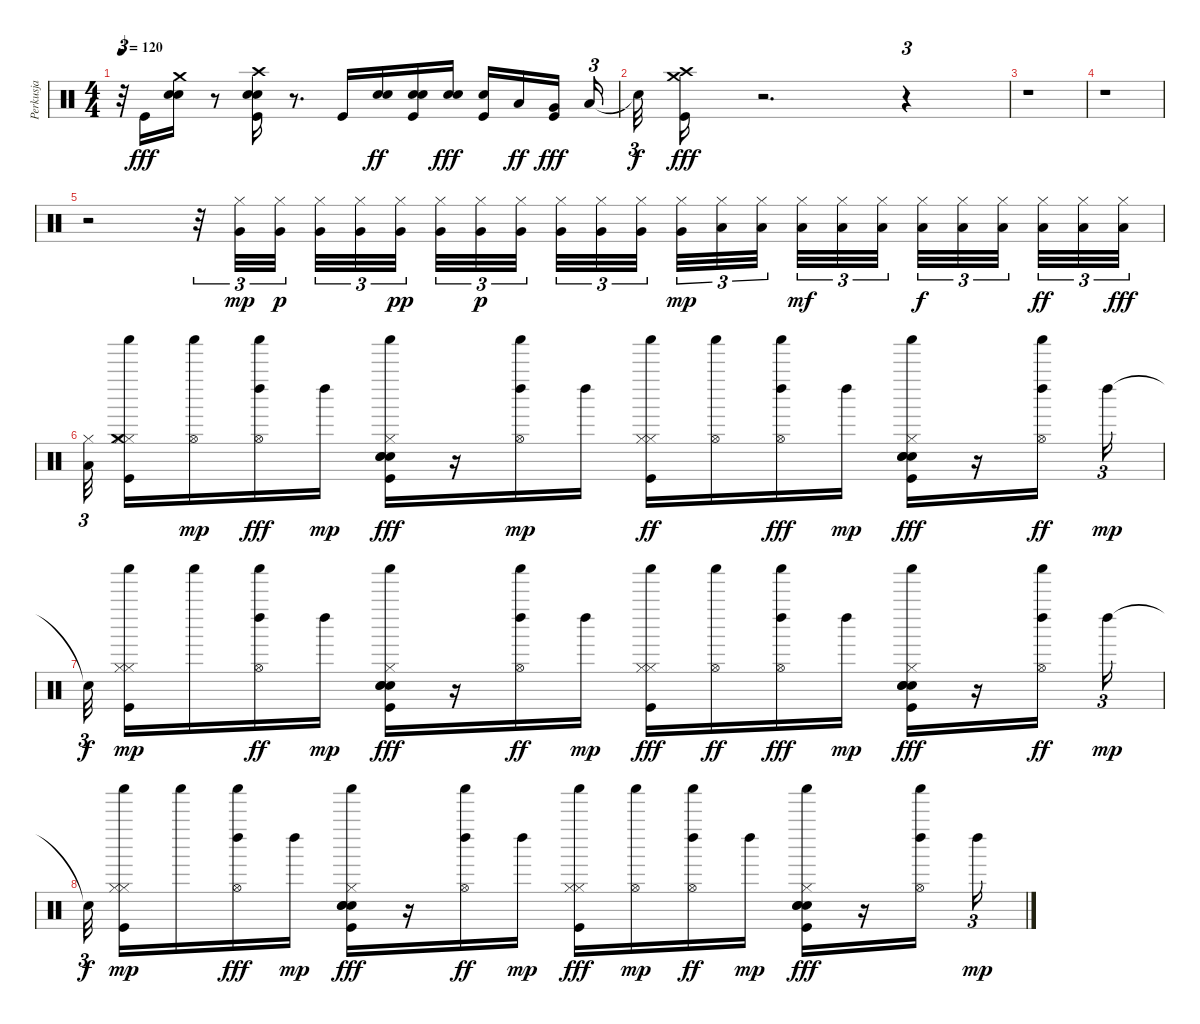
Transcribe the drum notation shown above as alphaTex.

\track ("Perkusja" "Perkusja") {instrument percussion}
\staff {score}
\articulation defaults
\ts (4 4)
\tempo 120
\clef neutral
\ks c
r.32{tu (3 2) dy ff} "Kick (hit)".16{dy fff} ("Snare (hit) 2" "Electric Snare (hit)" "Crash medium (hit)").16 r.8 ("Crash high (hit)" "Snare (hit) 2" "Electric Snare (hit)" "Kick (hit)").16 r.8{d} "Kick (hit)".16 ("Snare (hit) 2" "Electric Snare (hit)").16{dy ff} ("Snare (hit) 2" "Electric Snare (hit)" "Kick (hit)").16 ("Snare (hit) 2" "Electric Snare (hit)").16{dy fff} ("Electric Snare (hit)" "Kick (hit)").16 "Low Tom (hit)".16{dy ff} ("Very Low Tom (hit)" "Kick (hit)").16{dy fff} "Low Floor Tom (hit)".16{tu (3 2)} |
"Snare (hit)"{t}.32{tu (3 2) dy f} ("Kick (hit)" "Crash high (hit)" "Crash medium (hit)").16{dy fff} r.2{d} r.4{tu (3 2)} |
r.1 |
r.1 |
r.2 r.32{tu (3 2)} ("Hi-Hat (closed)" "Very Low Tom (hit)").32{tu (3 2) dy mp} ("Hi-Hat (closed)" "Very Low Tom (hit)").32{tu (3 2) dy p} ("Hi-Hat (closed)" "Very Low Tom (hit)").32{tu (3 2)} ("Hi-Hat (closed)" "Very Low Tom (hit)").32{tu (3 2)} ("Hi-Hat (closed)" "Very Low Tom (hit)").32{tu (3 2) dy pp} ("Hi-Hat (closed)" "Very Low Tom (hit)").32{tu (3 2)} ("Hi-Hat (closed)" "Very Low Tom (hit)").32{tu (3 2) dy p} ("Hi-Hat (closed)" "Very Low Tom (hit)").32{tu (3 2)} ("Hi-Hat (closed)" "Very Low Tom (hit)").32{tu (3 2)} ("Hi-Hat (closed)" "Very Low Tom (hit)").32{tu (3 2)} ("Hi-Hat (closed)" "Very Low Tom (hit)").32{tu (3 2)} ("Hi-Hat (closed)" "Very Low Tom (hit)").32{tu (3 2) dy mp} ("Hi-Hat (closed)" "Low Floor Tom (hit)").32{tu (3 2)} ("Hi-Hat (closed)" "Low Floor Tom (hit)").32{tu (3 2)} ("Hi-Hat (closed)" "Low Floor Tom (hit)").32{tu (3 2) dy mf} ("Hi-Hat (closed)" "Low Floor Tom (hit)").32{tu (3 2)} ("Hi-Hat (closed)" "Low Floor Tom (hit)").32{tu (3 2)} ("Hi-Hat (closed)" "Low Floor Tom (hit)").32{tu (3 2) dy f} ("Hi-Hat (closed)" "Low Floor Tom (hit)").32{tu (3 2)} ("Hi-Hat (closed)" "Low Floor Tom (hit)").32{tu (3 2)} ("Hi-Hat (closed)" "Low Floor Tom (hit)").32{tu (3 2) dy ff} ("Hi-Hat (closed)" "Low Floor Tom (hit)").32{tu (3 2)} ("Hi-Hat (closed)" "Low Floor Tom (hit)").32{tu (3 2) dy fff} |
("Hi-Hat (closed)" "Low Floor Tom (hit)").32{tu (3 2)} ("Hi-Hat (closed)" "Kick (hit)" "Hi-Hat (closed)" "Shaker (hit)" "Crash medium (hit)").16 ("Hi-Hat (open)" "Shaker (hit)").16{dy mp} ("Hi-Hat (open)" "Left Maraca (hit)" "Shaker (hit)").16{dy fff} "Left Maraca (hit)".16{dy mp} ("Kick (hit)" "Snare (hit) 2" "Electric Snare (hit)" "Hi-Hat (closed)" "Shaker (hit)" "Hand Clap (hit)").16{dy fff} r.16 ("Hi-Hat (open)" "Left Maraca (hit)" "Shaker (hit)").16{dy mp} "Left Maraca (hit)".16 ("Hi-Hat (closed)" "Kick (hit)" "Shaker (hit)" "Hi-Hat (closed)").16{dy ff} ("Shaker (hit)" "Hi-Hat (open)").16 ("Hi-Hat (open)" "Left Maraca (hit)" "Shaker (hit)").16{dy fff} "Left Maraca (hit)".16{dy mp} ("Kick (hit)" "Snare (hit) 2" "Hand Clap (hit)" "Electric Snare (hit)" "Hi-Hat (closed)" "Shaker (hit)").16{dy fff} r.16 ("Hi-Hat (open)" "Left Maraca (hit)" "Shaker (hit)").16{dy ff} "Left Maraca (hit)".16{tu (3 2) dy mp} |
"Snare (hit)"{t}.32{tu (3 2) dy f} ("Hi-Hat (closed)" "Kick (hit)" "Hi-Hat (closed)" "Shaker (hit)").16{dy mp} "Shaker (hit)".16 ("Hi-Hat (open)" "Left Maraca (hit)" "Shaker (hit)").16{dy ff} "Left Maraca (hit)".16{dy mp} ("Kick (hit)" "Snare (hit) 2" "Electric Snare (hit)" "Hi-Hat (closed)" "Shaker (hit)" "Hand Clap (hit)").16{dy fff} r.16 ("Hi-Hat (open)" "Left Maraca (hit)" "Shaker (hit)").16{dy ff} "Left Maraca (hit)".16{dy mp} ("Hi-Hat (closed)" "Kick (hit)" "Shaker (hit)" "Hi-Hat (closed)").16{dy fff} ("Shaker (hit)" "Hi-Hat (open)").16{dy ff} ("Hi-Hat (open)" "Left Maraca (hit)" "Shaker (hit)").16{dy fff} "Left Maraca (hit)".16{dy mp} ("Kick (hit)" "Snare (hit) 2" "Hand Clap (hit)" "Electric Snare (hit)" "Hi-Hat (closed)" "Shaker (hit)").16{dy fff} r.16 ("Hi-Hat (open)" "Left Maraca (hit)" "Shaker (hit)").16{dy ff} "Left Maraca (hit)".16{tu (3 2) dy mp} |
"Snare (hit)"{t}.32{tu (3 2) dy f} ("Hi-Hat (closed)" "Kick (hit)" "Hi-Hat (closed)" "Shaker (hit)").16{dy mp} "Shaker (hit)".16 ("Hi-Hat (open)" "Left Maraca (hit)" "Shaker (hit)").16{dy fff} "Left Maraca (hit)".16{dy mp} ("Snare (hit) 2" "Electric Snare (hit)" "Kick (hit)" "Hand Clap (hit)" "Hi-Hat (closed)" "Shaker (hit)").16{dy fff} r.16 ("Hi-Hat (open)" "Left Maraca (hit)" "Shaker (hit)").16{dy ff} "Left Maraca (hit)".16{dy mp} ("Hi-Hat (closed)" "Kick (hit)" "Shaker (hit)" "Hi-Hat (closed)").16{dy fff} ("Hi-Hat (open)" "Shaker (hit)").16{dy mp} ("Hi-Hat (open)" "Left Maraca (hit)" "Shaker (hit)").16{dy ff} "Left Maraca (hit)".16{dy mp} ("Kick (hit)" "Snare (hit) 2" "Hand Clap (hit)" "Electric Snare (hit)" "Hi-Hat (closed)" "Shaker (hit)").16{dy fff} r.16 ("Hi-Hat (open)" "Left Maraca (hit)" "Shaker (hit)").16 "Left Maraca (hit)".16{tu (3 2) dy mp}
